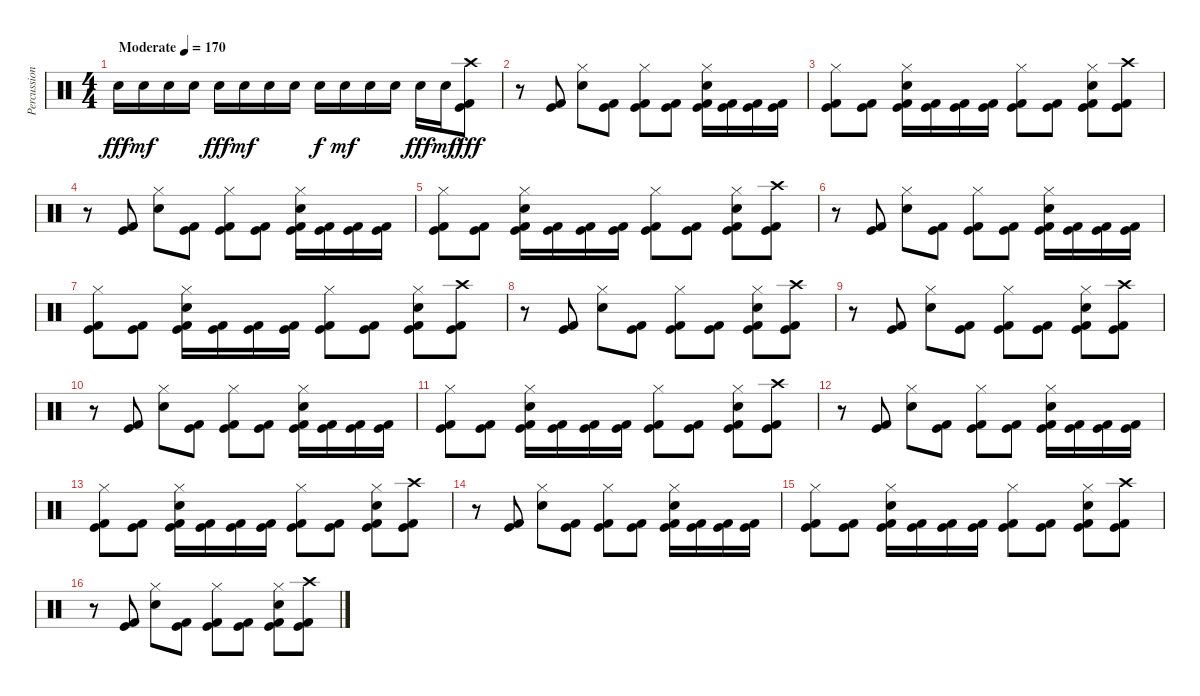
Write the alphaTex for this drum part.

\track ("Percussion" "Percussion") {instrument percussion}
\staff {score}
\articulation defaults
\ts (4 4)
\tempo (170 "Moderate")
\clef neutral
\ks c "Snare (hit) 2".16{dy fff} "Snare (hit) 2".16{dy mf} "Snare (hit) 2".16 "Snare (hit) 2".16 "Snare (hit) 2".16{dy fff} "Snare (hit) 2".16{dy mf} "Snare (hit) 2".16 "Snare (hit) 2".16 "Snare (hit) 2".16{dy f} "Snare (hit) 2".16{dy mf} "Snare (hit) 2".16 "Snare (hit) 2".16 "Snare (hit) 2".16{dy fff} "Snare (hit) 2".16{dy mf}
("Crash high (hit)" "Kick (hit) 2" "Kick (hit)").8{dy fff} |
r.8 ("Kick (hit) 2" "Kick (hit)").8 ("Electric Snare (hit)" "Hi-Hat (closed)").8 ("Kick (hit) 2" "Kick (hit)").8 ("Kick (hit) 2" "Kick (hit)" "Hi-Hat (closed)").8 ("Kick (hit) 2" "Kick (hit)").8 ("Electric Snare (hit)" "Kick (hit) 2" "Kick (hit)" "Hi-Hat (closed)").16 ("Kick (hit) 2" "Kick (hit)").16 ("Kick (hit) 2" "Kick (hit)").16 ("Kick (hit) 2" "Kick (hit)").16 |
("Kick (hit) 2" "Kick (hit)" "Hi-Hat (closed)").8 ("Kick (hit) 2" "Kick (hit)").8 ("Electric Snare (hit)" "Kick (hit) 2" "Kick (hit)" "Hi-Hat (closed)").16 ("Kick (hit) 2" "Kick (hit)").16 ("Kick (hit) 2" "Kick (hit)").16 ("Kick (hit) 2" "Kick (hit)").16 ("Kick (hit) 2" "Kick (hit)" "Hi-Hat (closed)").8 ("Kick (hit) 2" "Kick (hit)").8 ("Electric Snare (hit)" "Kick (hit) 2" "Kick (hit)" "Hi-Hat (closed)").8 ("Kick (hit) 2" "Kick (hit)" "Crash high (hit)").8 |
r.8 ("Kick (hit) 2" "Kick (hit)").8 ("Electric Snare (hit)" "Hi-Hat (closed)").8 ("Kick (hit) 2" "Kick (hit)").8 ("Kick (hit) 2" "Kick (hit)" "Hi-Hat (closed)").8 ("Kick (hit) 2" "Kick (hit)").8 ("Electric Snare (hit)" "Kick (hit) 2" "Kick (hit)" "Hi-Hat (closed)").16 ("Kick (hit) 2" "Kick (hit)").16 ("Kick (hit) 2" "Kick (hit)").16 ("Kick (hit) 2" "Kick (hit)").16 |
("Kick (hit) 2" "Kick (hit)" "Hi-Hat (closed)").8 ("Kick (hit) 2" "Kick (hit)").8 ("Electric Snare (hit)" "Kick (hit) 2" "Kick (hit)" "Hi-Hat (closed)").16 ("Kick (hit) 2" "Kick (hit)").16 ("Kick (hit) 2" "Kick (hit)").16 ("Kick (hit) 2" "Kick (hit)").16 ("Kick (hit) 2" "Kick (hit)" "Hi-Hat (closed)").8 ("Kick (hit) 2" "Kick (hit)").8 ("Electric Snare (hit)" "Kick (hit) 2" "Kick (hit)" "Hi-Hat (closed)").8 ("Kick (hit) 2" "Kick (hit)" "Crash high (hit)").8 |
r.8 ("Kick (hit) 2" "Kick (hit)").8 ("Electric Snare (hit)" "Hi-Hat (closed)").8 ("Kick (hit) 2" "Kick (hit)").8 ("Kick (hit) 2" "Kick (hit)" "Hi-Hat (closed)").8 ("Kick (hit) 2" "Kick (hit)").8 ("Electric Snare (hit)" "Kick (hit) 2" "Kick (hit)" "Hi-Hat (closed)").16 ("Kick (hit) 2" "Kick (hit)").16 ("Kick (hit) 2" "Kick (hit)").16 ("Kick (hit) 2" "Kick (hit)").16 |
("Kick (hit) 2" "Kick (hit)" "Hi-Hat (closed)").8 ("Kick (hit) 2" "Kick (hit)").8 ("Electric Snare (hit)" "Kick (hit) 2" "Kick (hit)" "Hi-Hat (closed)").16 ("Kick (hit) 2" "Kick (hit)").16 ("Kick (hit) 2" "Kick (hit)").16 ("Kick (hit) 2" "Kick (hit)").16 ("Kick (hit) 2" "Kick (hit)" "Hi-Hat (closed)").8 ("Kick (hit) 2" "Kick (hit)").8 ("Electric Snare (hit)" "Kick (hit) 2" "Kick (hit)" "Hi-Hat (closed)").8 ("Kick (hit) 2" "Kick (hit)" "Crash high (hit)").8 |
r.8 ("Kick (hit) 2" "Kick (hit)").8 ("Electric Snare (hit)" "Hi-Hat (closed)").8 ("Kick (hit) 2" "Kick (hit)").8 ("Kick (hit) 2" "Kick (hit)" "Hi-Hat (closed)").8 ("Kick (hit) 2" "Kick (hit)").8 ("Electric Snare (hit)" "Kick (hit) 2" "Kick (hit)" "Hi-Hat (closed)").8 ("Kick (hit) 2" "Kick (hit)" "Crash high (hit)").8 |
r.8 ("Kick (hit) 2" "Kick (hit)").8 ("Electric Snare (hit)" "Hi-Hat (closed)").8 ("Kick (hit) 2" "Kick (hit)").8 ("Kick (hit) 2" "Kick (hit)" "Hi-Hat (closed)").8 ("Kick (hit) 2" "Kick (hit)").8 ("Electric Snare (hit)" "Kick (hit) 2" "Kick (hit)" "Hi-Hat (closed)").8 ("Kick (hit) 2" "Kick (hit)" "Crash high (hit)").8 |
r.8 ("Kick (hit) 2" "Kick (hit)").8 ("Electric Snare (hit)" "Hi-Hat (closed)").8 ("Kick (hit) 2" "Kick (hit)").8 ("Kick (hit) 2" "Kick (hit)" "Hi-Hat (closed)").8 ("Kick (hit) 2" "Kick (hit)").8 ("Electric Snare (hit)" "Kick (hit) 2" "Kick (hit)" "Hi-Hat (closed)").16 ("Kick (hit) 2" "Kick (hit)").16 ("Kick (hit) 2" "Kick (hit)").16 ("Kick (hit) 2" "Kick (hit)").16 |
("Kick (hit) 2" "Kick (hit)" "Hi-Hat (closed)").8 ("Kick (hit) 2" "Kick (hit)").8 ("Electric Snare (hit)" "Kick (hit) 2" "Kick (hit)" "Hi-Hat (closed)").16 ("Kick (hit) 2" "Kick (hit)").16 ("Kick (hit) 2" "Kick (hit)").16 ("Kick (hit) 2" "Kick (hit)").16 ("Kick (hit) 2" "Kick (hit)" "Hi-Hat (closed)").8 ("Kick (hit) 2" "Kick (hit)").8 ("Electric Snare (hit)" "Kick (hit) 2" "Kick (hit)" "Hi-Hat (closed)").8 ("Kick (hit) 2" "Kick (hit)" "Crash high (hit)").8 |
r.8 ("Kick (hit) 2" "Kick (hit)").8 ("Electric Snare (hit)" "Hi-Hat (closed)").8 ("Kick (hit) 2" "Kick (hit)").8 ("Kick (hit) 2" "Kick (hit)" "Hi-Hat (closed)").8 ("Kick (hit) 2" "Kick (hit)").8 ("Electric Snare (hit)" "Kick (hit) 2" "Kick (hit)" "Hi-Hat (closed)").16 ("Kick (hit) 2" "Kick (hit)").16 ("Kick (hit) 2" "Kick (hit)").16 ("Kick (hit) 2" "Kick (hit)").16 |
("Kick (hit) 2" "Kick (hit)" "Hi-Hat (closed)").8 ("Kick (hit) 2" "Kick (hit)").8 ("Electric Snare (hit)" "Kick (hit) 2" "Kick (hit)" "Hi-Hat (closed)").16 ("Kick (hit) 2" "Kick (hit)").16 ("Kick (hit) 2" "Kick (hit)").16 ("Kick (hit) 2" "Kick (hit)").16 ("Kick (hit) 2" "Kick (hit)" "Hi-Hat (closed)").8 ("Kick (hit) 2" "Kick (hit)").8 ("Electric Snare (hit)" "Kick (hit) 2" "Kick (hit)" "Hi-Hat (closed)").8 ("Kick (hit) 2" "Kick (hit)" "Crash high (hit)").8 |
r.8 ("Kick (hit) 2" "Kick (hit)").8 ("Electric Snare (hit)" "Hi-Hat (closed)").8 ("Kick (hit) 2" "Kick (hit)").8 ("Kick (hit) 2" "Kick (hit)" "Hi-Hat (closed)").8 ("Kick (hit) 2" "Kick (hit)").8 ("Electric Snare (hit)" "Kick (hit) 2" "Kick (hit)" "Hi-Hat (closed)").16 ("Kick (hit) 2" "Kick (hit)").16 ("Kick (hit) 2" "Kick (hit)").16 ("Kick (hit) 2" "Kick (hit)").16 |
("Kick (hit) 2" "Kick (hit)" "Hi-Hat (closed)").8 ("Kick (hit) 2" "Kick (hit)").8 ("Electric Snare (hit)" "Kick (hit) 2" "Kick (hit)" "Hi-Hat (closed)").16 ("Kick (hit) 2" "Kick (hit)").16 ("Kick (hit) 2" "Kick (hit)").16 ("Kick (hit) 2" "Kick (hit)").16 ("Kick (hit) 2" "Kick (hit)" "Hi-Hat (closed)").8 ("Kick (hit) 2" "Kick (hit)").8 ("Electric Snare (hit)" "Kick (hit) 2" "Kick (hit)" "Hi-Hat (closed)").8 ("Kick (hit) 2" "Kick (hit)" "Crash high (hit)").8 |
r.8 ("Kick (hit) 2" "Kick (hit)").8 ("Electric Snare (hit)" "Hi-Hat (closed)").8 ("Kick (hit) 2" "Kick (hit)").8 ("Kick (hit) 2" "Kick (hit)" "Hi-Hat (closed)").8 ("Kick (hit) 2" "Kick (hit)").8 ("Electric Snare (hit)" "Kick (hit) 2" "Kick (hit)" "Hi-Hat (closed)").8 ("Kick (hit) 2" "Kick (hit)" "Crash high (hit)").8
